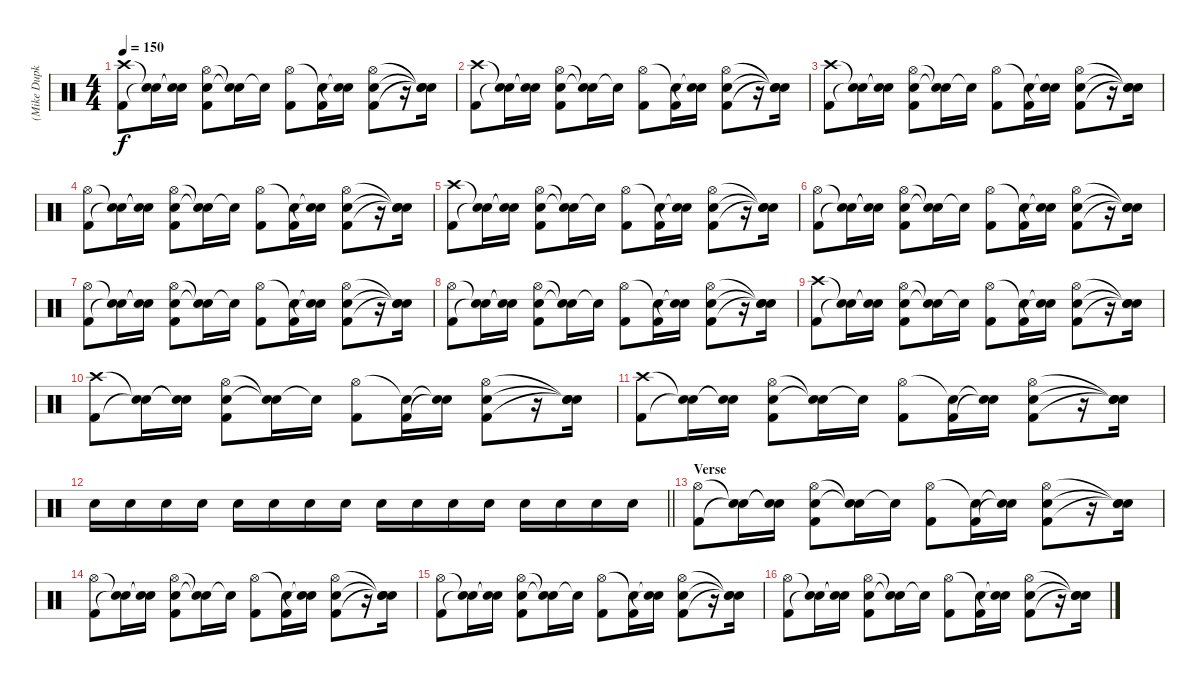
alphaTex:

\track ("(Mike Dupke) Drums" "(Mike Dupk") {instrument percussion}
\staff {score}
\articulation defaults
\ts (4 4)
\tempo 150
\clef neutral
\ks c
("Crash high (hit)" "Kick (hit) 2").8{dy f} ("Snare (hit)"{t} "Snare (hit)"{t}).16 ("Snare (hit)"{t} "Snare (hit)"{t}).16 ("Hi-Hat (open)" "Snare (hit) 2" "Kick (hit) 2").8 ("Snare (hit)"{t} "Snare (hit)"{t}).16 "Snare (hit)"{t}.16 ("Hi-Hat (open)" "Kick (hit) 2").8 ("Snare (hit)"{t} "Kick (hit) 2").16 ("Snare (hit)"{t} "Snare (hit)"{t}).16 ("Hi-Hat (open)" "Snare (hit) 2" "Kick (hit) 2").8 r.16 ("Snare (hit)"{t} "Snare (hit)"{t} "Snare (hit)"{t}).16 |
("Crash high (hit)" "Kick (hit) 2").8 ("Snare (hit)"{t} "Snare (hit)"{t}).16 ("Snare (hit)"{t} "Snare (hit)"{t}).16 ("Hi-Hat (open)" "Snare (hit) 2" "Kick (hit) 2").8 ("Snare (hit)"{t} "Snare (hit)"{t}).16 "Snare (hit)"{t}.16 ("Hi-Hat (open)" "Kick (hit) 2").8 ("Snare (hit)"{t} "Kick (hit) 2").16 ("Snare (hit)"{t} "Snare (hit)"{t}).16 ("Hi-Hat (open)" "Snare (hit) 2" "Kick (hit) 2").8 r.16 ("Snare (hit)"{t} "Snare (hit)"{t} "Snare (hit)"{t}).16 |
("Crash high (hit)" "Kick (hit) 2").8 ("Snare (hit)"{t} "Snare (hit)"{t}).16 ("Snare (hit)"{t} "Snare (hit)"{t}).16 ("Hi-Hat (open)" "Snare (hit) 2" "Kick (hit) 2").8 ("Snare (hit)"{t} "Snare (hit)"{t}).16 "Snare (hit)"{t}.16 ("Hi-Hat (open)" "Kick (hit) 2").8 ("Snare (hit)"{t} "Kick (hit) 2").16 ("Snare (hit)"{t} "Snare (hit)"{t}).16 ("Hi-Hat (open)" "Snare (hit) 2" "Kick (hit) 2").8 r.16 ("Snare (hit)"{t} "Snare (hit)"{t} "Snare (hit)"{t}).16 |
("Hi-Hat (open)" "Kick (hit) 2").8 ("Snare (hit)"{t} "Snare (hit)"{t}).16 ("Snare (hit)"{t} "Snare (hit)"{t}).16 ("Hi-Hat (open)" "Snare (hit) 2" "Kick (hit) 2").8 ("Snare (hit)"{t} "Snare (hit)"{t}).16 "Snare (hit)"{t}.16 ("Hi-Hat (open)" "Kick (hit) 2").8 ("Snare (hit)"{t} "Kick (hit) 2").16 ("Snare (hit)"{t} "Snare (hit)"{t}).16 ("Hi-Hat (open)" "Snare (hit) 2" "Kick (hit) 2").8 r.16 ("Snare (hit)"{t} "Snare (hit)"{t} "Snare (hit)"{t}).16 |
("Crash high (hit)" "Kick (hit) 2").8 ("Snare (hit)"{t} "Snare (hit)"{t}).16 ("Snare (hit)"{t} "Snare (hit)"{t}).16 ("Hi-Hat (open)" "Snare (hit) 2" "Kick (hit) 2").8 ("Snare (hit)"{t} "Snare (hit)"{t}).16 "Snare (hit)"{t}.16 ("Hi-Hat (open)" "Kick (hit) 2").8 ("Snare (hit)"{t} "Kick (hit) 2").16 ("Snare (hit)"{t} "Snare (hit)"{t}).16 ("Hi-Hat (open)" "Snare (hit) 2" "Kick (hit) 2").8 r.16 ("Snare (hit)"{t} "Snare (hit)"{t} "Snare (hit)"{t}).16 |
("Hi-Hat (open)" "Kick (hit) 2").8 ("Snare (hit)"{t} "Snare (hit)"{t}).16 ("Snare (hit)"{t} "Snare (hit)"{t}).16 ("Hi-Hat (open)" "Snare (hit) 2" "Kick (hit) 2").8 ("Snare (hit)"{t} "Snare (hit)"{t}).16 "Snare (hit)"{t}.16 ("Hi-Hat (open)" "Kick (hit) 2").8 ("Snare (hit)"{t} "Kick (hit) 2").16 ("Snare (hit)"{t} "Snare (hit)"{t}).16 ("Hi-Hat (open)" "Snare (hit) 2" "Kick (hit) 2").8 r.16 ("Snare (hit)"{t} "Snare (hit)"{t} "Snare (hit)"{t}).16 |
("Hi-Hat (open)" "Kick (hit) 2").8 ("Snare (hit)"{t} "Snare (hit)"{t}).16 ("Snare (hit)"{t} "Snare (hit)"{t}).16 ("Hi-Hat (open)" "Snare (hit) 2" "Kick (hit) 2").8 ("Snare (hit)"{t} "Snare (hit)"{t}).16 "Snare (hit)"{t}.16 ("Hi-Hat (open)" "Kick (hit) 2").8 ("Snare (hit)"{t} "Kick (hit) 2").16 ("Snare (hit)"{t} "Snare (hit)"{t}).16 ("Hi-Hat (open)" "Snare (hit) 2" "Kick (hit) 2").8 r.16 ("Snare (hit)"{t} "Snare (hit)"{t} "Snare (hit)"{t}).16 |
("Hi-Hat (open)" "Kick (hit) 2").8 ("Snare (hit)"{t} "Snare (hit)"{t}).16 ("Snare (hit)"{t} "Snare (hit)"{t}).16 ("Hi-Hat (open)" "Snare (hit) 2" "Kick (hit) 2").8 ("Snare (hit)"{t} "Snare (hit)"{t}).16 "Snare (hit)"{t}.16 ("Hi-Hat (open)" "Kick (hit) 2").8 ("Snare (hit)"{t} "Kick (hit) 2").16 ("Snare (hit)"{t} "Snare (hit)"{t}).16 ("Hi-Hat (open)" "Snare (hit) 2" "Kick (hit) 2").8 r.16 ("Snare (hit)"{t} "Snare (hit)"{t} "Snare (hit)"{t}).16 |
("Crash high (hit)" "Kick (hit) 2").8 ("Snare (hit)"{t} "Snare (hit)"{t}).16 ("Snare (hit)"{t} "Snare (hit)"{t}).16 ("Hi-Hat (open)" "Snare (hit) 2" "Kick (hit) 2").8 ("Snare (hit)"{t} "Snare (hit)"{t}).16 "Snare (hit)"{t}.16 ("Hi-Hat (open)" "Kick (hit) 2").8 ("Snare (hit)"{t} "Kick (hit) 2").16 ("Snare (hit)"{t} "Snare (hit)"{t}).16 ("Hi-Hat (open)" "Snare (hit) 2" "Kick (hit) 2").8 r.16 ("Snare (hit)"{t} "Snare (hit)"{t} "Snare (hit)"{t}).16 |
("Crash high (hit)" "Kick (hit) 2").8 ("Snare (hit)"{t} "Snare (hit)"{t}).16 ("Snare (hit)"{t} "Snare (hit)"{t}).16 ("Hi-Hat (open)" "Snare (hit) 2" "Kick (hit) 2").8 ("Snare (hit)"{t} "Snare (hit)"{t}).16 "Snare (hit)"{t}.16 ("Hi-Hat (open)" "Kick (hit) 2").8 ("Snare (hit)"{t} "Kick (hit) 2").16 ("Snare (hit)"{t} "Snare (hit)"{t}).16 ("Hi-Hat (open)" "Snare (hit) 2" "Kick (hit) 2").8 r.16 ("Snare (hit)"{t} "Snare (hit)"{t} "Snare (hit)"{t}).16 |
("Crash high (hit)" "Kick (hit) 2").8 ("Snare (hit)"{t} "Snare (hit)"{t}).16 ("Snare (hit)"{t} "Snare (hit)"{t}).16 ("Hi-Hat (open)" "Snare (hit) 2" "Kick (hit) 2").8 ("Snare (hit)"{t} "Snare (hit)"{t}).16 "Snare (hit)"{t}.16 ("Hi-Hat (open)" "Kick (hit) 2").8 ("Snare (hit)"{t} "Kick (hit) 2").16 ("Snare (hit)"{t} "Snare (hit)"{t}).16 ("Hi-Hat (open)" "Snare (hit) 2" "Kick (hit) 2").8 r.16 ("Snare (hit)"{t} "Snare (hit)"{t} "Snare (hit)"{t}).16 |
\barLineRight lightlight "Snare (hit) 2".16 "Snare (hit) 2".16 "Snare (hit) 2".16 "Snare (hit) 2".16 "Snare (hit) 2".16 "Snare (hit) 2".16 "Snare (hit) 2".16 "Snare (hit) 2".16 "Snare (hit) 2".16 "Snare (hit) 2".16 "Snare (hit) 2".16 "Snare (hit) 2".16 "Snare (hit) 2".16 "Snare (hit) 2".16 "Snare (hit) 2".16 "Snare (hit) 2".16
|
\section ("" "Verse")
("Hi-Hat (open)" "Kick (hit) 2").8 ("Snare (hit)"{t} "Snare (hit)"{t}).16 ("Snare (hit)"{t} "Snare (hit)"{t}).16 ("Hi-Hat (open)" "Snare (hit) 2" "Kick (hit) 2").8 ("Snare (hit)"{t} "Snare (hit)"{t}).16 "Snare (hit)"{t}.16 ("Hi-Hat (open)" "Kick (hit) 2").8 ("Snare (hit)"{t} "Kick (hit) 2").16 ("Snare (hit)"{t} "Snare (hit)"{t}).16 ("Hi-Hat (open)" "Snare (hit) 2" "Kick (hit) 2").8 r.16 ("Snare (hit)"{t} "Snare (hit)"{t} "Snare (hit)"{t}).16 |
("Hi-Hat (open)" "Kick (hit) 2").8 ("Snare (hit)"{t} "Snare (hit)"{t}).16 ("Snare (hit)"{t} "Snare (hit)"{t}).16 ("Hi-Hat (open)" "Snare (hit) 2" "Kick (hit) 2").8 ("Snare (hit)"{t} "Snare (hit)"{t}).16 "Snare (hit)"{t}.16 ("Hi-Hat (open)" "Kick (hit) 2").8 ("Snare (hit)"{t} "Kick (hit) 2").16 ("Snare (hit)"{t} "Snare (hit)"{t}).16 ("Hi-Hat (open)" "Snare (hit) 2" "Kick (hit) 2").8 r.16 ("Snare (hit)"{t} "Snare (hit)"{t} "Snare (hit)"{t}).16 |
("Hi-Hat (open)" "Kick (hit) 2").8 ("Snare (hit)"{t} "Snare (hit)"{t}).16 ("Snare (hit)"{t} "Snare (hit)"{t}).16 ("Hi-Hat (open)" "Snare (hit) 2" "Kick (hit) 2").8 ("Snare (hit)"{t} "Snare (hit)"{t}).16 "Snare (hit)"{t}.16 ("Hi-Hat (open)" "Kick (hit) 2").8 ("Snare (hit)"{t} "Kick (hit) 2").16 ("Snare (hit)"{t} "Snare (hit)"{t}).16 ("Hi-Hat (open)" "Snare (hit) 2" "Kick (hit) 2").8 r.16 ("Snare (hit)"{t} "Snare (hit)"{t} "Snare (hit)"{t}).16 |
("Hi-Hat (open)" "Kick (hit) 2").8 ("Snare (hit)"{t} "Snare (hit)"{t}).16 ("Snare (hit)"{t} "Snare (hit)"{t}).16 ("Hi-Hat (open)" "Snare (hit) 2" "Kick (hit) 2").8 ("Snare (hit)"{t} "Snare (hit)"{t}).16 "Snare (hit)"{t}.16 ("Hi-Hat (open)" "Kick (hit) 2").8 ("Snare (hit)"{t} "Kick (hit) 2").16 ("Snare (hit)"{t} "Snare (hit)"{t}).16 ("Hi-Hat (open)" "Snare (hit) 2" "Kick (hit) 2").8 r.16 ("Snare (hit)"{t} "Snare (hit)"{t} "Snare (hit)"{t}).16
